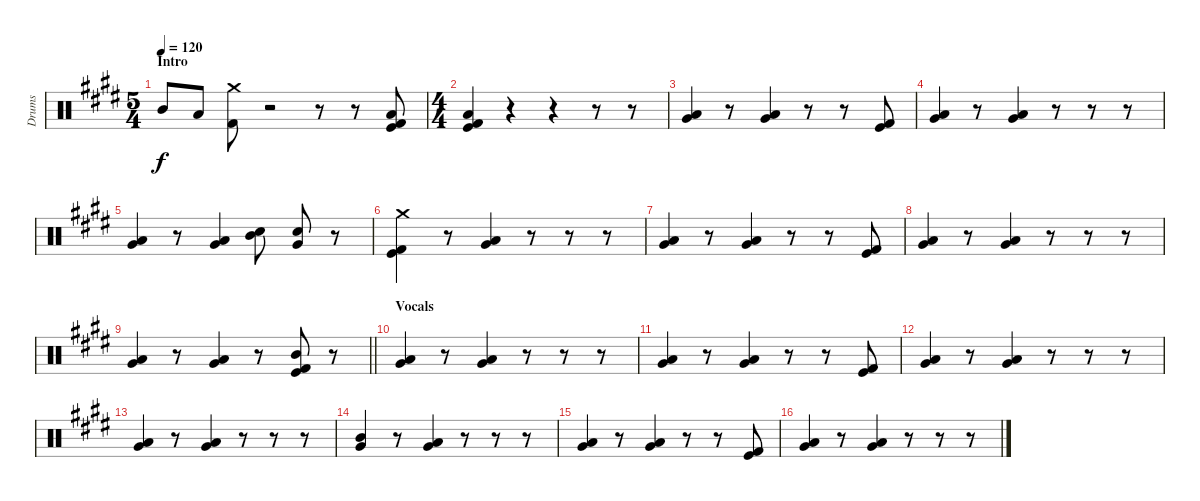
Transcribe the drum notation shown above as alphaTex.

\track ("Drums" "Drums") {instrument percussion}
\staff {score}
\articulation defaults
\ts (5 4)
\section ("" "Intro")
\tempo 120
\clef neutral
\ks e "Mid Tom (hit)".8{dy f} "Low Tom (hit)".8
("Crash medium (hit)" "Kick (hit) 2").8 r.2 r.8 r.8 ("Low Tom (hit)" "Kick (hit)" "Kick (hit) 2").8 |
\ts (4 4)
("Low Tom (hit)" "Kick (hit)" "Kick (hit) 2").4 r.4 r.4 r.8 r.8 |
("Low Tom (hit)" "Very Low Tom (hit)").4 r.8 ("Low Tom (hit)" "Very Low Tom (hit)").4 r.8 r.8 ("Kick (hit) 2" "Kick (hit)").8 |
("Low Tom (hit)" "Very Low Tom (hit)").4 r.8 ("Low Tom (hit)" "Very Low Tom (hit)").4 r.8 r.8 r.8 |
("Low Tom (hit)" "Very Low Tom (hit)").4 r.8 ("Low Tom (hit)" "Very Low Tom (hit)").4 ("Mid Tom (hit)" "Electric Snare (hit)").8 ("Very Low Tom (hit)" "Electric Snare (hit)").8 r.8 |
("Crash medium (hit)" "Kick (hit)" "Kick (hit) 2").4 r.8 ("Low Tom (hit)" "Very Low Tom (hit)").4 r.8 r.8 r.8 |
("Low Tom (hit)" "Very Low Tom (hit)").4 r.8 ("Low Tom (hit)" "Very Low Tom (hit)").4 r.8 r.8 ("Kick (hit) 2" "Kick (hit)").8 |
("Low Tom (hit)" "Very Low Tom (hit)").4 r.8 ("Low Tom (hit)" "Very Low Tom (hit)").4 r.8 r.8 r.8 |
\barLineRight lightlight
("Low Tom (hit)" "Very Low Tom (hit)").4 r.8 ("Low Tom (hit)" "Very Low Tom (hit)").4 r.8 ("Mid Tom (hit)" "Kick (hit)" "Kick (hit) 2").8 r.8 |
\section ("" "Vocals")
("Low Tom (hit)" "Very Low Tom (hit)").4 r.8 ("Low Tom (hit)" "Very Low Tom (hit)").4 r.8 r.8 r.8 |
("Low Tom (hit)" "Very Low Tom (hit)").4 r.8 ("Low Tom (hit)" "Very Low Tom (hit)").4 r.8 r.8 ("Kick (hit) 2" "Kick (hit)").8 |
("Low Tom (hit)" "Very Low Tom (hit)").4 r.8 ("Low Tom (hit)" "Very Low Tom (hit)").4 r.8 r.8 r.8 |
("Low Tom (hit)" "Very Low Tom (hit)").4 r.8 ("Low Tom (hit)" "Very Low Tom (hit)").4 r.8 r.8 r.8 |
("Mid Tom (hit)" "Very Low Tom (hit)").4 r.8 ("Low Tom (hit)" "Very Low Tom (hit)").4 r.8 r.8 r.8 |
("Low Tom (hit)" "Very Low Tom (hit)").4 r.8 ("Low Tom (hit)" "Very Low Tom (hit)").4 r.8 r.8 ("Kick (hit) 2" "Kick (hit)").8 |
("Low Tom (hit)" "Very Low Tom (hit)").4 r.8 ("Low Tom (hit)" "Very Low Tom (hit)").4 r.8 r.8 r.8
